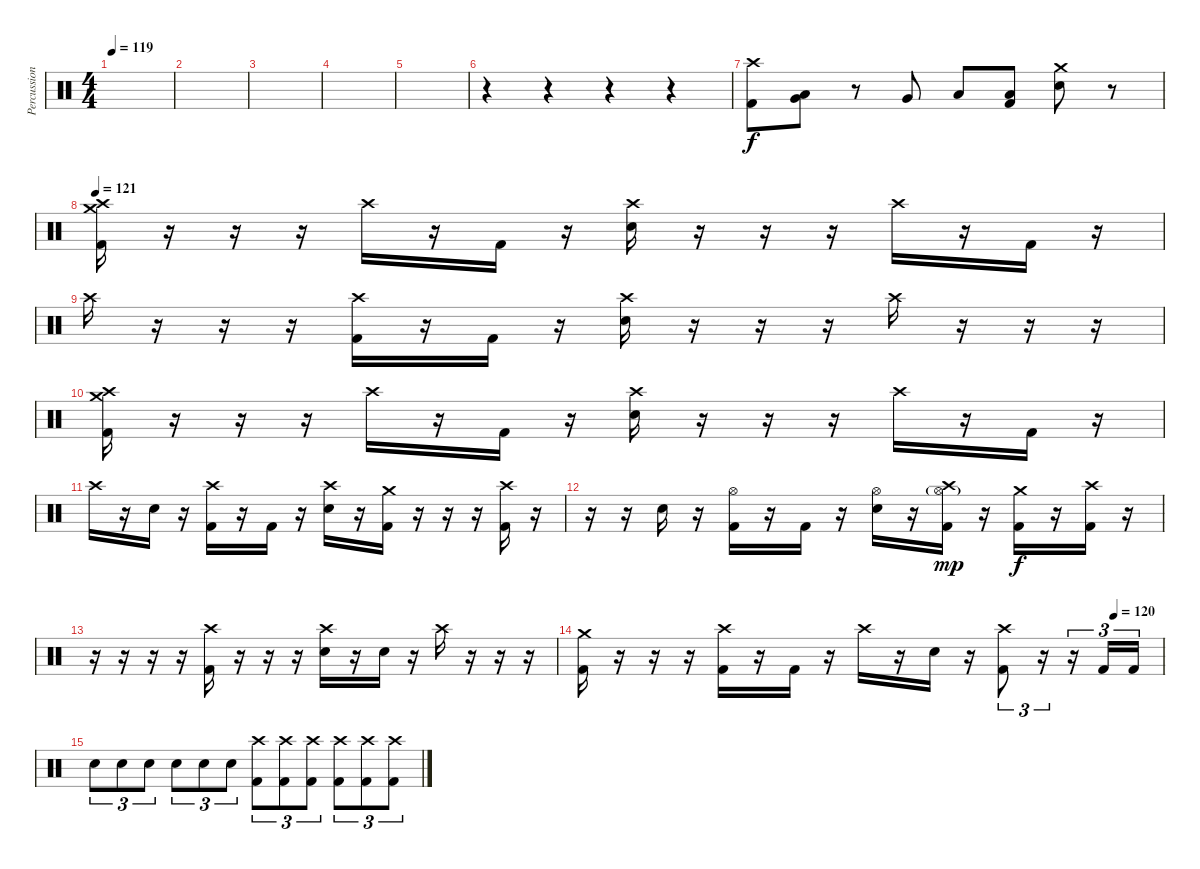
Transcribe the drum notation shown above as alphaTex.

\track ("Percussion" "Percussion") {mute instrument percussion}
\staff {score}
\articulation defaults
\ts (4 4)
\tempo 119
\clef neutral
\ks c
|
|
|
|
|
r.4 r.4 r.4 r.4 |
("Crash high (hit)" "Kick (hit) 2").8 ("Low Floor Tom (hit)" "Very Low Tom (hit)").8 r.8 "Very Low Tom (hit)".8 "Low Floor Tom (hit)".8 ("Low Floor Tom (hit)" "Kick (hit) 2").8 ("Crash medium (hit)" "Snare (hit) 2").8 r.8 |
\tempo 121
("Crash high (hit)" "Crash medium (hit)" "Kick (hit) 2").16 r.16 r.16 r.16 "Crash high (hit)".16 r.16 "Kick (hit) 2".16 r.16 ("Crash high (hit)" "Snare (hit) 2").16 r.16 r.16 r.16 "Crash high (hit)".16 r.16 "Kick (hit) 2".16 r.16 |
"Crash high (hit)".16 r.16 r.16 r.16 ("Crash high (hit)" "Kick (hit) 2").16 r.16 "Kick (hit) 2".16 r.16 ("Crash high (hit)" "Snare (hit) 2").16 r.16 r.16 r.16 "Crash high (hit)".16 r.16 r.16 r.16 |
("Crash high (hit)" "Crash medium (hit)" "Kick (hit) 2").16 r.16 r.16 r.16 "Crash high (hit)".16 r.16 "Kick (hit) 2".16 r.16 ("Crash high (hit)" "Snare (hit) 2").16 r.16 r.16 r.16 "Crash high (hit)".16 r.16 "Kick (hit) 2".16 r.16 |
"Crash high (hit)".16 r.16 "Snare (hit) 2".16 r.16 ("Crash high (hit)" "Kick (hit) 2").16 r.16 "Kick (hit) 2".16 r.16 ("Crash high (hit)" "Snare (hit) 2").16 r.16 ("Crash medium (hit)" "Kick (hit) 2").16 r.16 r.16 r.16 ("Crash high (hit)" "Kick (hit) 2").16 r.16 |
r.16 r.16 "Snare (hit) 2".16 r.16 ("Hi-Hat (open)" "Kick (hit) 2").16 r.16 "Kick (hit) 2".16 r.16 ("Hi-Hat (open)" "Snare (hit) 2").16 r.16 ("Crash high (hit)" "Hi-Hat (open)"{g} "Kick (hit) 2").16{dy mp} r.16 ("Crash medium (hit)" "Kick (hit) 2").16{dy f} r.16 ("Crash high (hit)" "Kick (hit) 2").16 r.16 |
r.16 r.16 r.16 r.16 ("Crash high (hit)" "Kick (hit) 2").16 r.16 r.16 r.16 ("Crash high (hit)" "Snare (hit) 2").16 r.16 "Snare (hit) 2".16 r.16 "Crash high (hit)".16 r.16 r.16 r.16 |
\tempo (120 0.9166666666666666)
("Crash medium (hit)" "Kick (hit) 2").16 r.16 r.16 r.16 ("Crash high (hit)" "Kick (hit) 2").16 r.16 "Kick (hit) 2".16 r.16 "Crash high (hit)".16 r.16 "Snare (hit) 2".16 r.16 ("Crash high (hit)" "Kick (hit) 2").8{tu (3 2)} r.16{tu (3 2)} r.16{tu (3 2)} "Kick (hit) 2".16{tu (3 2)} "Kick (hit) 2".16{tu (3 2)} |
"Snare (hit) 2".8{tu (3 2)} "Snare (hit) 2".8{tu (3 2)} "Snare (hit) 2".8{tu (3 2)} "Snare (hit) 2".8{tu (3 2)} "Snare (hit) 2".8{tu (3 2)} "Snare (hit) 2".8{tu (3 2)} ("Crash high (hit)" "Kick (hit) 2").8{tu (3 2)} ("Crash high (hit)" "Kick (hit) 2").8{tu (3 2)} ("Crash high (hit)" "Kick (hit) 2").8{tu (3 2)} ("Crash high (hit)" "Kick (hit) 2").8{tu (3 2)} ("Crash high (hit)" "Kick (hit) 2").8{tu (3 2)} ("Crash high (hit)" "Kick (hit) 2").8{tu (3 2)}
